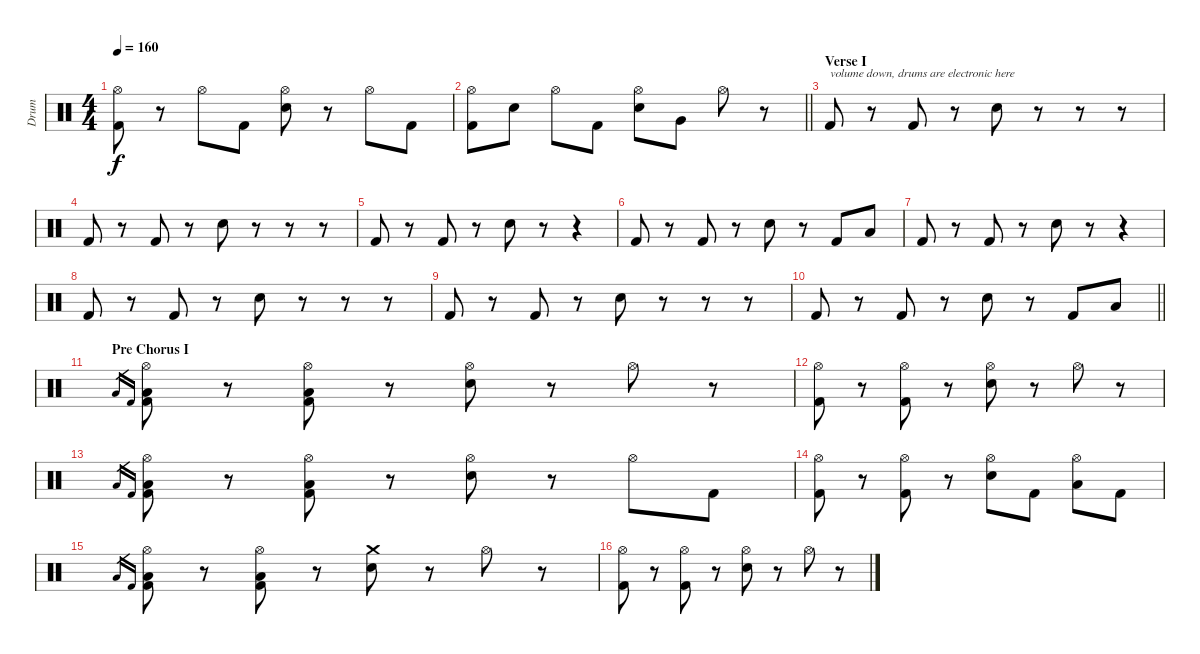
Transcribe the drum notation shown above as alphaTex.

\track ("Drum" "Drum") {instrument percussion}
\staff {score}
\articulation defaults
\ts (4 4)
\tempo 160
\clef neutral
\ks c
("Hi-Hat (open)" "Kick (hit) 2").8{dy f} r.8 "Hi-Hat (open)".8 "Kick (hit) 2".8 ("Hi-Hat (open)" "Electric Snare (hit)").8 r.8 "Hi-Hat (open)".8 "Kick (hit) 2".8 |
\barLineRight lightlight
("Hi-Hat (open)" "Kick (hit) 2").8 "Electric Snare (hit)".8 "Hi-Hat (open)".8 "Kick (hit) 2".8 ("Hi-Hat (open)" "Electric Snare (hit)").8 "Very Low Tom (hit)".8 "Hi-Hat (open)".8 r.8 |
\section ("" "Verse I")
"Kick (hit) 2".8{txt "volume down, drums are electronic here" volume 8} r.8 "Kick (hit) 2".8 r.8 "Electric Snare (hit)".8 r.8 r.8 r.8 |
"Kick (hit) 2".8 r.8 "Kick (hit) 2".8 r.8 "Electric Snare (hit)".8 r.8 r.8 r.8 |
"Kick (hit) 2".8 r.8 "Kick (hit) 2".8 r.8 "Electric Snare (hit)".8 r.8 r.4 |
"Kick (hit) 2".8 r.8 "Kick (hit) 2".8 r.8 "Electric Snare (hit)".8 r.8 "Kick (hit) 2".8 "Low Floor Tom (hit)".8 |
"Kick (hit) 2".8 r.8 "Kick (hit) 2".8 r.8 "Electric Snare (hit)".8 r.8 r.4 |
"Kick (hit) 2".8 r.8 "Kick (hit) 2".8 r.8 "Electric Snare (hit)".8 r.8 r.8 r.8 |
"Kick (hit) 2".8 r.8 "Kick (hit) 2".8 r.8 "Electric Snare (hit)".8 r.8 r.8 r.8 |
\barLineRight lightlight "Kick (hit) 2".8
r.8 "Kick (hit) 2".8 r.8 "Electric Snare (hit)".8 r.8 "Kick (hit) 2".8 "Low Floor Tom (hit)".8 |
\section ("" "Pre Chorus I")
"Low Floor Tom (hit)".16{gr} "Kick (hit) 2".16{gr} ("Hi-Hat (open)" "Low Floor Tom (hit)" "Kick (hit) 2").8{volume 11} r.8 ("Hi-Hat (open)" "Low Floor Tom (hit)" "Kick (hit) 2").8 r.8 ("Hi-Hat (open)" "Electric Snare (hit)").8 r.8 "Hi-Hat (open)".8 r.8 |
("Hi-Hat (open)" "Kick (hit) 2").8 r.8 ("Hi-Hat (open)" "Kick (hit) 2").8 r.8 ("Hi-Hat (open)" "Electric Snare (hit)").8 r.8 "Hi-Hat (open)".8 r.8 |
"Low Floor Tom (hit)".16{gr} "Kick (hit) 2".16{gr} ("Hi-Hat (open)" "Low Floor Tom (hit)" "Kick (hit) 2").8 r.8 ("Hi-Hat (open)" "Low Floor Tom (hit)" "Kick (hit) 2").8 r.8 ("Hi-Hat (open)" "Electric Snare (hit)").8 r.8 "Hi-Hat (open)".8 "Kick (hit) 2".8 |
("Hi-Hat (open)" "Kick (hit) 2").8 r.8 ("Hi-Hat (open)" "Kick (hit) 2").8 r.8 ("Hi-Hat (open)" "Electric Snare (hit)").8 "Kick (hit) 2".8 ("Hi-Hat (open)" "Low Floor Tom (hit)").8 "Kick (hit) 2".8 |
"Low Floor Tom (hit)".16{gr} "Kick (hit) 2".16{gr} ("Hi-Hat (open)" "Low Floor Tom (hit)" "Kick (hit) 2").8 r.8 ("Hi-Hat (open)" "Low Floor Tom (hit)" "Kick (hit) 2").8 r.8 ("Crash medium (hit)" "Electric Snare (hit)").8 r.8 "Hi-Hat (open)".8 r.8 |
("Hi-Hat (open)" "Kick (hit) 2").8 r.8 ("Hi-Hat (open)" "Kick (hit) 2").8 r.8 ("Hi-Hat (open)" "Electric Snare (hit)").8 r.8 "Hi-Hat (open)".8 r.8
